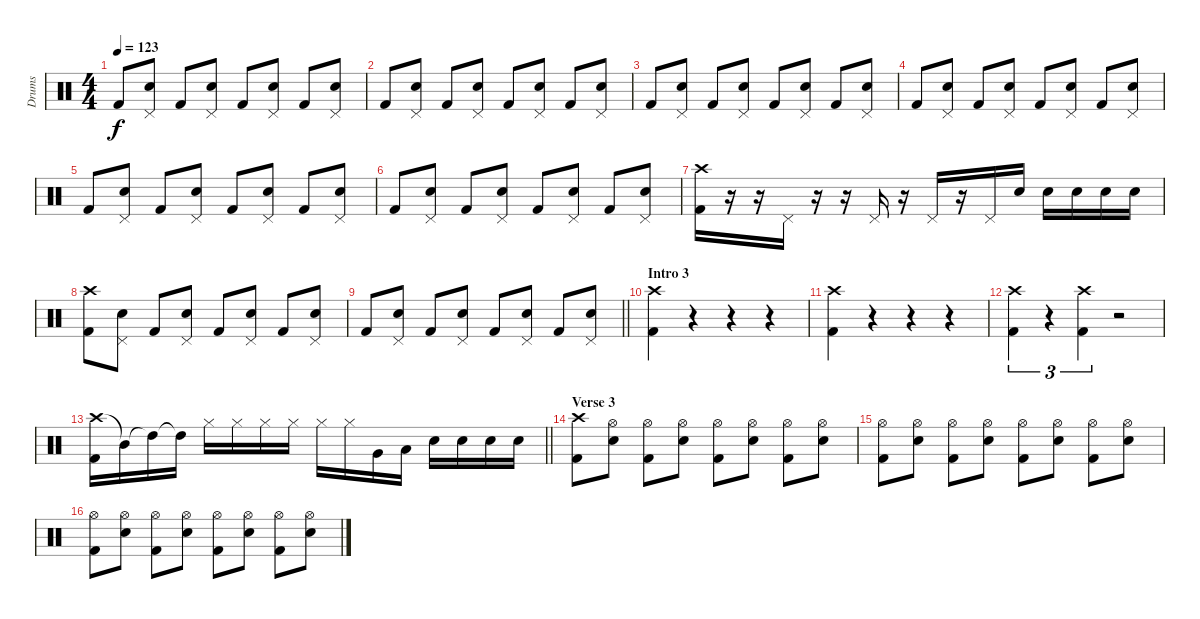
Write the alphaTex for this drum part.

\track ("Drums" "Drums") {instrument percussion}
\staff {score}
\articulation defaults
\ts (4 4)
\tempo 123
\clef neutral
\ks c "Kick (hit) 2".8{dy f}
("Pedal Hi-Hat (hit)" "Snare (hit) 2").8 "Kick (hit) 2".8 ("Pedal Hi-Hat (hit)" "Snare (hit) 2").8 "Kick (hit) 2".8 ("Pedal Hi-Hat (hit)" "Snare (hit) 2").8 "Kick (hit) 2".8 ("Pedal Hi-Hat (hit)" "Snare (hit) 2").8 |
"Kick (hit) 2".8 ("Pedal Hi-Hat (hit)" "Snare (hit) 2").8 "Kick (hit) 2".8 ("Pedal Hi-Hat (hit)" "Snare (hit) 2").8 "Kick (hit) 2".8 ("Pedal Hi-Hat (hit)" "Snare (hit) 2").8 "Kick (hit) 2".8 ("Pedal Hi-Hat (hit)" "Snare (hit) 2").8 |
"Kick (hit) 2".8 ("Pedal Hi-Hat (hit)" "Snare (hit) 2").8 "Kick (hit) 2".8 ("Pedal Hi-Hat (hit)" "Snare (hit) 2").8 "Kick (hit) 2".8 ("Pedal Hi-Hat (hit)" "Snare (hit) 2").8 "Kick (hit) 2".8 ("Pedal Hi-Hat (hit)" "Snare (hit) 2").8 |
"Kick (hit) 2".8 ("Pedal Hi-Hat (hit)" "Snare (hit) 2").8 "Kick (hit) 2".8 ("Pedal Hi-Hat (hit)" "Snare (hit) 2").8 "Kick (hit) 2".8 ("Pedal Hi-Hat (hit)" "Snare (hit) 2").8 "Kick (hit) 2".8 ("Pedal Hi-Hat (hit)" "Snare (hit) 2").8 |
"Kick (hit) 2".8 ("Pedal Hi-Hat (hit)" "Snare (hit) 2").8 "Kick (hit) 2".8 ("Pedal Hi-Hat (hit)" "Snare (hit) 2").8 "Kick (hit) 2".8 ("Pedal Hi-Hat (hit)" "Snare (hit) 2").8 "Kick (hit) 2".8 ("Pedal Hi-Hat (hit)" "Snare (hit) 2").8 |
"Kick (hit) 2".8 ("Pedal Hi-Hat (hit)" "Snare (hit) 2").8 "Kick (hit) 2".8 ("Pedal Hi-Hat (hit)" "Snare (hit) 2").8 "Kick (hit) 2".8 ("Pedal Hi-Hat (hit)" "Snare (hit) 2").8 "Kick (hit) 2".8 ("Pedal Hi-Hat (hit)" "Snare (hit) 2").8 |
("Crash high (hit)" "Kick (hit) 2").16 r.16 r.16 "Pedal Hi-Hat (hit)".16 r.16 r.16 "Pedal Hi-Hat (hit)".16 r.16 "Pedal Hi-Hat (hit)".16 r.16 "Pedal Hi-Hat (hit)".16 "Snare (hit) 2".16 "Snare (hit) 2".16 "Snare (hit) 2".16 "Snare (hit) 2".16 "Snare (hit) 2".16 |
("Crash high (hit)" "Kick (hit) 2").8 ("Pedal Hi-Hat (hit)" "Snare (hit) 2").8 "Kick (hit) 2".8 ("Pedal Hi-Hat (hit)" "Snare (hit) 2").8 "Kick (hit) 2".8 ("Pedal Hi-Hat (hit)" "Snare (hit) 2").8 "Kick (hit) 2".8 ("Pedal Hi-Hat (hit)" "Snare (hit) 2").8 |
\barLineRight lightlight "Kick (hit) 2".8
("Pedal Hi-Hat (hit)" "Snare (hit) 2").8 "Kick (hit) 2".8 ("Pedal Hi-Hat (hit)" "Snare (hit) 2").8 "Kick (hit) 2".8 ("Pedal Hi-Hat (hit)" "Snare (hit) 2").8 "Kick (hit) 2".8 ("Pedal Hi-Hat (hit)" "Snare (hit) 2").8 |
\section ("" "Intro 3")
("Crash high (hit)" "Kick (hit) 2").4 r.4 r.4 r.4 |
("Crash high (hit)" "Kick (hit) 2").4 r.4 r.4 r.4 |
("Crash high (hit)" "Kick (hit) 2").4{tu (3 2)} r.4{tu (3 2)} ("Crash high (hit)" "Kick (hit) 2").4{tu (3 2)} r.2 |
\barLineRight lightlight
("Crash high (hit)" "Kick (hit) 2").16 "Mid Tom (hit)"{t}.16 "High Tom (hit)"{t}.16 "High Tom (hit)"{t}.16 "Hi-Hat (closed)".16 "Hi-Hat (closed)".16 "Hi-Hat (closed)".16 "Hi-Hat (closed)".16 "Hi-Hat (closed)".16 "Hi-Hat (closed)".16 "Very Low Tom (hit)".16 "Low Tom (hit)".16 "Snare (hit) 2".16 "Snare (hit) 2".16 "Snare (hit) 2".16 "Snare (hit) 2".16 |
\section ("" "Verse 3")
("Crash high (hit)" "Kick (hit) 2").8 ("Hi-Hat (open)" "Snare (hit) 2").8 ("Hi-Hat (open)" "Kick (hit) 2").8 ("Hi-Hat (open)" "Snare (hit) 2").8 ("Hi-Hat (open)" "Kick (hit) 2").8 ("Hi-Hat (open)" "Snare (hit) 2").8 ("Hi-Hat (open)" "Kick (hit) 2").8 ("Hi-Hat (open)" "Snare (hit) 2").8 |
("Hi-Hat (open)" "Kick (hit) 2").8 ("Hi-Hat (open)" "Snare (hit) 2").8 ("Hi-Hat (open)" "Kick (hit) 2").8 ("Hi-Hat (open)" "Snare (hit) 2").8 ("Hi-Hat (open)" "Kick (hit) 2").8 ("Hi-Hat (open)" "Snare (hit) 2").8 ("Hi-Hat (open)" "Kick (hit) 2").8 ("Hi-Hat (open)" "Snare (hit) 2").8 |
("Hi-Hat (open)" "Kick (hit) 2").8 ("Hi-Hat (open)" "Snare (hit) 2").8 ("Hi-Hat (open)" "Kick (hit) 2").8 ("Hi-Hat (open)" "Snare (hit) 2").8 ("Hi-Hat (open)" "Kick (hit) 2").8 ("Hi-Hat (open)" "Snare (hit) 2").8 ("Hi-Hat (open)" "Kick (hit) 2").8 ("Hi-Hat (open)" "Snare (hit) 2").8
